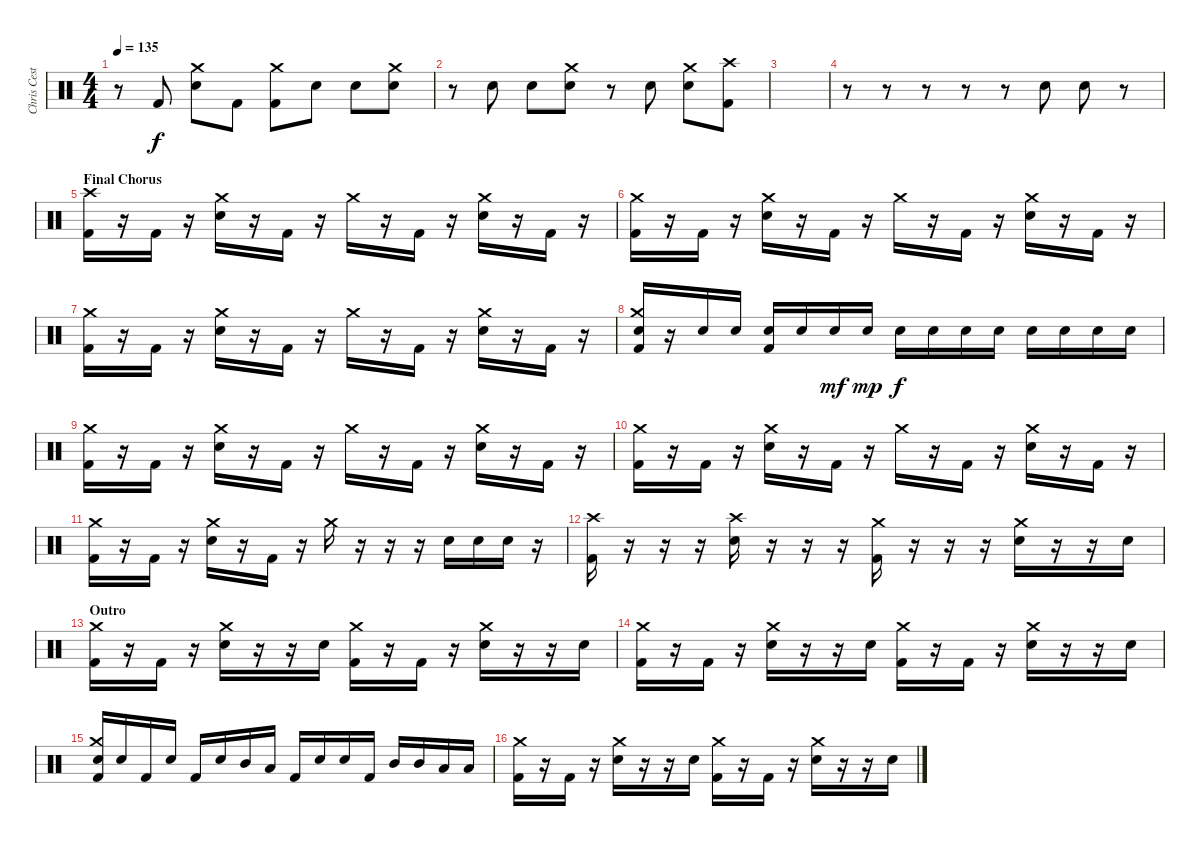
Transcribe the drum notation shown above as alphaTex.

\track ("Chris Cester - Drums" "Chris Cest") {instrument percussion}
\staff {score}
\articulation defaults
\ts (4 4)
\tempo 135
\clef neutral
\ks c
r.8{dy f} "Kick (hit) 2".8 ("Crash medium (hit)" "Electric Snare (hit)").8 "Kick (hit) 2".8 ("Crash medium (hit)" "Kick (hit) 2").8 "Electric Snare (hit)".8 "Electric Snare (hit)".8 ("Crash medium (hit)" "Electric Snare (hit)").8 |
r.8 "Electric Snare (hit)".8 "Electric Snare (hit)".8 ("Crash medium (hit)" "Electric Snare (hit)").8 r.8 "Electric Snare (hit)".8 ("Crash medium (hit)" "Electric Snare (hit)").8 ("Crash high (hit)" "Kick (hit) 2").8 |
|
r.8 r.8 r.8 r.8 r.8 "Electric Snare (hit)".8 "Electric Snare (hit)".8 r.8 |
\section ("" "Final Chorus")
("Crash high (hit)" "Kick (hit) 2").16 r.16 "Kick (hit) 2".16 r.16 ("Crash medium (hit)" "Electric Snare (hit)").16 r.16 "Kick (hit) 2".16 r.16 "Crash medium (hit)".16 r.16 "Kick (hit) 2".16 r.16 ("Crash medium (hit)" "Electric Snare (hit)").16 r.16 "Kick (hit) 2".16 r.16 |
("Crash medium (hit)" "Kick (hit) 2").16 r.16 "Kick (hit) 2".16 r.16 ("Crash medium (hit)" "Electric Snare (hit)").16 r.16 "Kick (hit) 2".16 r.16 "Crash medium (hit)".16 r.16 "Kick (hit) 2".16 r.16 ("Crash medium (hit)" "Electric Snare (hit)").16 r.16 "Kick (hit) 2".16 r.16 |
("Crash medium (hit)" "Kick (hit) 2").16 r.16 "Kick (hit) 2".16 r.16 ("Crash medium (hit)" "Electric Snare (hit)").16 r.16 "Kick (hit) 2".16 r.16 "Crash medium (hit)".16 r.16 "Kick (hit) 2".16 r.16 ("Crash medium (hit)" "Electric Snare (hit)").16 r.16 "Kick (hit) 2".16 r.16 |
("Crash medium (hit)" "Electric Snare (hit)" "Kick (hit) 2").16 r.16 "Electric Snare (hit)".16 "Electric Snare (hit)".16 ("Electric Snare (hit)" "Kick (hit) 2").16 "Electric Snare (hit)".16 "Electric Snare (hit)".16{dy mf} "Electric Snare (hit)".16{dy mp} "Electric Snare (hit)".16{dy f} "Electric Snare (hit)".16 "Electric Snare (hit)".16 "Electric Snare (hit)".16 "Electric Snare (hit)".16 "Electric Snare (hit)".16 "Electric Snare (hit)".16 "Electric Snare (hit)".16 |
("Crash medium (hit)" "Kick (hit) 2").16 r.16 "Kick (hit) 2".16 r.16 ("Crash medium (hit)" "Electric Snare (hit)").16 r.16 "Kick (hit) 2".16 r.16 "Crash medium (hit)".16 r.16 "Kick (hit) 2".16 r.16 ("Crash medium (hit)" "Electric Snare (hit)").16 r.16 "Kick (hit) 2".16 r.16 |
("Crash medium (hit)" "Kick (hit) 2").16 r.16 "Kick (hit) 2".16 r.16 ("Crash medium (hit)" "Electric Snare (hit)").16 r.16 "Kick (hit) 2".16 r.16 "Crash medium (hit)".16 r.16 "Kick (hit) 2".16 r.16 ("Crash medium (hit)" "Electric Snare (hit)").16 r.16 "Kick (hit) 2".16 r.16 |
("Crash medium (hit)" "Kick (hit) 2").16 r.16 "Kick (hit) 2".16 r.16 ("Crash medium (hit)" "Electric Snare (hit)").16 r.16 "Kick (hit) 2".16 r.16 "Crash medium (hit)".16 r.16 r.16 r.16 "Electric Snare (hit)".16 "Electric Snare (hit)".16 "Electric Snare (hit)".16 r.16 |
("Crash high (hit)" "Kick (hit) 2").16 r.16 r.16 r.16 ("Crash high (hit)" "Electric Snare (hit)").16 r.16 r.16 r.16 ("Crash medium (hit)" "Kick (hit) 2").16 r.16 r.16 r.16 ("Crash medium (hit)" "Electric Snare (hit)").16 r.16 r.16 "Electric Snare (hit)".16 |
\section ("" "Outro")
("Crash medium (hit)" "Kick (hit) 2").16 r.16 "Kick (hit) 2".16 r.16 ("Crash medium (hit)" "Electric Snare (hit)").16 r.16 r.16 "Electric Snare (hit)".16 ("Crash medium (hit)" "Kick (hit) 2").16 r.16 "Kick (hit) 2".16 r.16 ("Crash medium (hit)" "Electric Snare (hit)").16 r.16 r.16 "Electric Snare (hit)".16 |
("Crash medium (hit)" "Kick (hit) 2").16 r.16 "Kick (hit) 2".16 r.16 ("Crash medium (hit)" "Electric Snare (hit)").16 r.16 r.16 "Electric Snare (hit)".16 ("Crash medium (hit)" "Kick (hit) 2").16 r.16 "Kick (hit) 2".16 r.16 ("Crash medium (hit)" "Electric Snare (hit)").16 r.16 r.16 "Electric Snare (hit)".16 |
("Crash medium (hit)" "Electric Snare (hit)" "Kick (hit) 2").16 "Electric Snare (hit)".16 "Kick (hit) 2".16 "Electric Snare (hit)".16 "Kick (hit) 2".16 "Electric Snare (hit)".16 "Mid Tom (hit)".16 "Low Tom (hit)".16 "Kick (hit) 2".16 "Electric Snare (hit)".16 "Electric Snare (hit)".16 "Kick (hit) 2".16 "Mid Tom (hit)".16 "Mid Tom (hit)".16 "Low Tom (hit)".16 "Low Tom (hit)".16 |
("Crash medium (hit)" "Kick (hit) 2").16 r.16 "Kick (hit) 2".16 r.16 ("Crash medium (hit)" "Electric Snare (hit)").16 r.16 r.16 "Electric Snare (hit)".16 ("Crash medium (hit)" "Kick (hit) 2").16 r.16 "Kick (hit) 2".16 r.16 ("Crash medium (hit)" "Electric Snare (hit)").16 r.16 r.16 "Electric Snare (hit)".16
